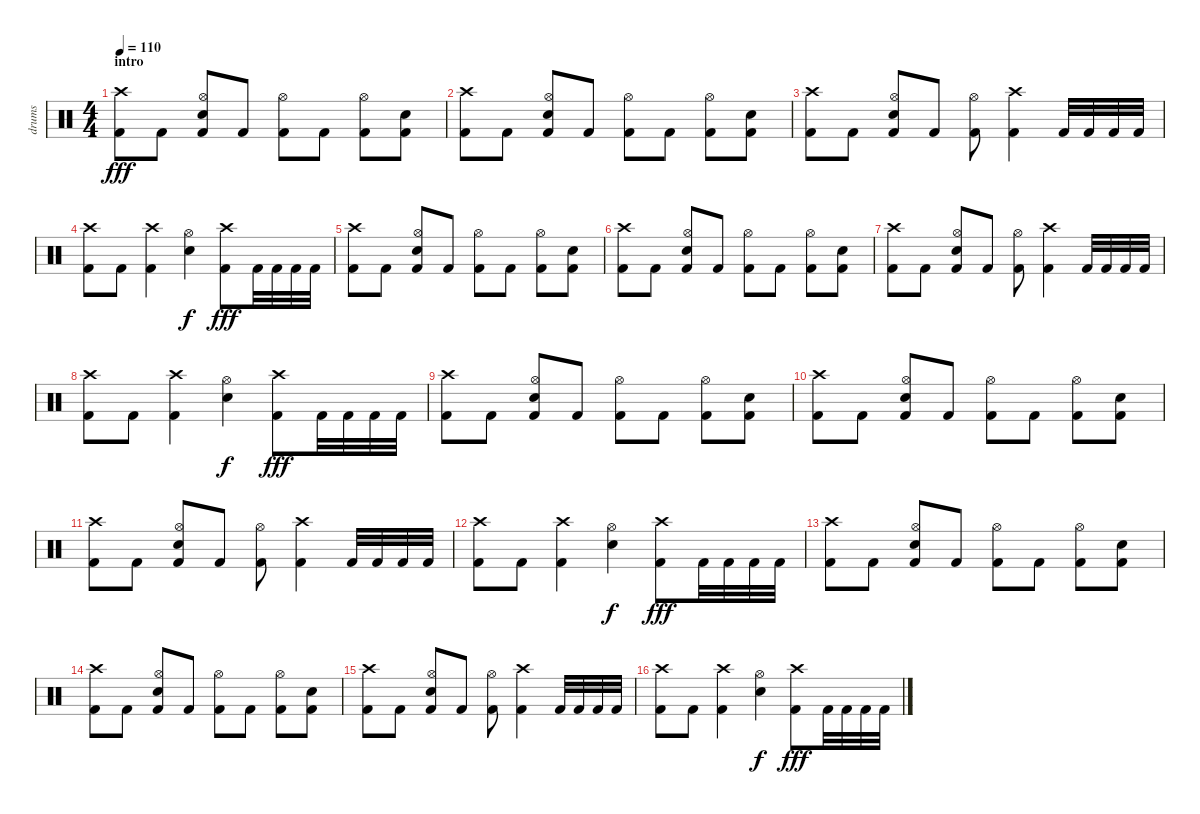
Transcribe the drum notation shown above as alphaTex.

\track ("drums" "drums") {instrument percussion}
\staff {score}
\articulation defaults
\ts (4 4)
\section ("" "intro")
\tempo 110
\clef neutral
\ks c
("Crash high (hit)" "Kick (hit) 2").8{dy fff} "Kick (hit) 2".8 ("Hi-Hat (open)" "Snare (hit) 2" "Kick (hit) 2").8 "Kick (hit) 2".8 ("Hi-Hat (open)" "Kick (hit) 2").8 "Kick (hit) 2".8 ("Hi-Hat (open)" "Kick (hit) 2").8 ("Snare (hit) 2" "Kick (hit) 2").8 |
("Crash high (hit)" "Kick (hit) 2").8 "Kick (hit) 2".8 ("Hi-Hat (open)" "Snare (hit) 2" "Kick (hit) 2").8 "Kick (hit) 2".8 ("Hi-Hat (open)" "Kick (hit) 2").8 "Kick (hit) 2".8 ("Hi-Hat (open)" "Kick (hit) 2").8 ("Snare (hit) 2" "Kick (hit) 2").8 |
("Crash high (hit)" "Kick (hit) 2").8 "Kick (hit) 2".8 ("Hi-Hat (open)" "Snare (hit) 2" "Kick (hit) 2").8 "Kick (hit) 2".8 ("Hi-Hat (open)" "Kick (hit) 2").8 ("Crash high (hit)" "Kick (hit) 2").4 "Kick (hit) 2".32 "Kick (hit) 2".32 "Kick (hit) 2".32 "Kick (hit) 2".32 |
("Crash high (hit)" "Kick (hit) 2").8 "Kick (hit) 2".8 ("Crash high (hit)" "Kick (hit) 2").4 ("Hi-Hat (open)" "Snare (hit) 2").4{dy f} ("Crash high (hit)" "Kick (hit) 2").8{dy fff} "Kick (hit) 2".32 "Kick (hit) 2".32 "Kick (hit) 2".32 "Kick (hit) 2".32 |
("Crash high (hit)" "Kick (hit) 2").8 "Kick (hit) 2".8 ("Hi-Hat (open)" "Snare (hit) 2" "Kick (hit) 2").8 "Kick (hit) 2".8 ("Hi-Hat (open)" "Kick (hit) 2").8 "Kick (hit) 2".8 ("Hi-Hat (open)" "Kick (hit) 2").8 ("Snare (hit) 2" "Kick (hit) 2").8 |
("Crash high (hit)" "Kick (hit) 2").8 "Kick (hit) 2".8 ("Hi-Hat (open)" "Snare (hit) 2" "Kick (hit) 2").8 "Kick (hit) 2".8 ("Hi-Hat (open)" "Kick (hit) 2").8 "Kick (hit) 2".8 ("Hi-Hat (open)" "Kick (hit) 2").8 ("Snare (hit) 2" "Kick (hit) 2").8 |
("Crash high (hit)" "Kick (hit) 2").8 "Kick (hit) 2".8 ("Hi-Hat (open)" "Snare (hit) 2" "Kick (hit) 2").8 "Kick (hit) 2".8 ("Hi-Hat (open)" "Kick (hit) 2").8 ("Crash high (hit)" "Kick (hit) 2").4 "Kick (hit) 2".32 "Kick (hit) 2".32 "Kick (hit) 2".32 "Kick (hit) 2".32 |
("Crash high (hit)" "Kick (hit) 2").8 "Kick (hit) 2".8 ("Crash high (hit)" "Kick (hit) 2").4 ("Hi-Hat (open)" "Snare (hit) 2").4{dy f} ("Crash high (hit)" "Kick (hit) 2").8{dy fff} "Kick (hit) 2".32 "Kick (hit) 2".32 "Kick (hit) 2".32 "Kick (hit) 2".32 |
("Crash high (hit)" "Kick (hit) 2").8 "Kick (hit) 2".8 ("Hi-Hat (open)" "Snare (hit) 2" "Kick (hit) 2").8 "Kick (hit) 2".8 ("Hi-Hat (open)" "Kick (hit) 2").8 "Kick (hit) 2".8 ("Hi-Hat (open)" "Kick (hit) 2").8 ("Snare (hit) 2" "Kick (hit) 2").8 |
("Crash high (hit)" "Kick (hit) 2").8 "Kick (hit) 2".8 ("Hi-Hat (open)" "Snare (hit) 2" "Kick (hit) 2").8 "Kick (hit) 2".8 ("Hi-Hat (open)" "Kick (hit) 2").8 "Kick (hit) 2".8 ("Hi-Hat (open)" "Kick (hit) 2").8 ("Snare (hit) 2" "Kick (hit) 2").8 |
("Crash high (hit)" "Kick (hit) 2").8 "Kick (hit) 2".8 ("Hi-Hat (open)" "Snare (hit) 2" "Kick (hit) 2").8 "Kick (hit) 2".8 ("Hi-Hat (open)" "Kick (hit) 2").8 ("Crash high (hit)" "Kick (hit) 2").4 "Kick (hit) 2".32 "Kick (hit) 2".32 "Kick (hit) 2".32 "Kick (hit) 2".32 |
("Crash high (hit)" "Kick (hit) 2").8 "Kick (hit) 2".8 ("Crash high (hit)" "Kick (hit) 2").4 ("Hi-Hat (open)" "Snare (hit) 2").4{dy f} ("Crash high (hit)" "Kick (hit) 2").8{dy fff} "Kick (hit) 2".32 "Kick (hit) 2".32 "Kick (hit) 2".32 "Kick (hit) 2".32 |
("Crash high (hit)" "Kick (hit) 2").8 "Kick (hit) 2".8 ("Hi-Hat (open)" "Snare (hit) 2" "Kick (hit) 2").8 "Kick (hit) 2".8 ("Hi-Hat (open)" "Kick (hit) 2").8 "Kick (hit) 2".8 ("Hi-Hat (open)" "Kick (hit) 2").8 ("Snare (hit) 2" "Kick (hit) 2").8 |
("Crash high (hit)" "Kick (hit) 2").8 "Kick (hit) 2".8 ("Hi-Hat (open)" "Snare (hit) 2" "Kick (hit) 2").8 "Kick (hit) 2".8 ("Hi-Hat (open)" "Kick (hit) 2").8 "Kick (hit) 2".8 ("Hi-Hat (open)" "Kick (hit) 2").8 ("Snare (hit) 2" "Kick (hit) 2").8 |
("Crash high (hit)" "Kick (hit) 2").8 "Kick (hit) 2".8 ("Hi-Hat (open)" "Snare (hit) 2" "Kick (hit) 2").8 "Kick (hit) 2".8 ("Hi-Hat (open)" "Kick (hit) 2").8 ("Crash high (hit)" "Kick (hit) 2").4 "Kick (hit) 2".32 "Kick (hit) 2".32 "Kick (hit) 2".32 "Kick (hit) 2".32 |
("Crash high (hit)" "Kick (hit) 2").8 "Kick (hit) 2".8 ("Crash high (hit)" "Kick (hit) 2").4 ("Hi-Hat (open)" "Snare (hit) 2").4{dy f} ("Crash high (hit)" "Kick (hit) 2").8{dy fff} "Kick (hit) 2".32 "Kick (hit) 2".32 "Kick (hit) 2".32 "Kick (hit) 2".32
